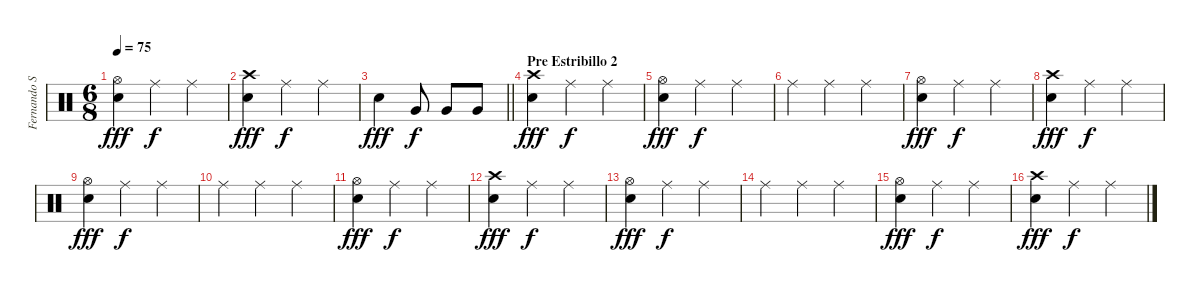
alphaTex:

\track ("Fernando Scarcella " "Fernando S") {instrument percussion}
\staff {score}
\articulation defaults
\ts (6 8)
\tempo 75
\clef neutral
\ks c
("Hi-Hat (open)" "Snare (hit) 2").4{dy fff} "Ride (middle)".4{dy f} "Ride (middle)".4 |
("Snare (hit) 2" "Crash high (hit)").4{dy fff} "Ride (middle)".4{dy f} "Ride (middle)".4 |
\barLineRight lightlight "Snare (hit) 2".4{dy fff} "Very Low Tom (hit)".8{dy f} "Very Low Tom (hit)".8 "Very Low Tom (hit)".8
|
\section ("" "Pre Estribillo 2")
("Snare (hit) 2" "Crash high (hit)").4{dy fff} "Ride (middle)".4{dy f} "Ride (middle)".4 |
("Hi-Hat (open)" "Snare (hit) 2").4{dy fff} "Ride (middle)".4{dy f} "Ride (middle)".4 |
"Ride (middle)".4 "Ride (middle)".4 "Ride (middle)".4 |
("Hi-Hat (open)" "Snare (hit) 2").4{dy fff} "Ride (middle)".4{dy f} "Ride (middle)".4 |
("Snare (hit) 2" "Crash high (hit)").4{dy fff} "Ride (middle)".4{dy f} "Ride (middle)".4 |
("Hi-Hat (open)" "Snare (hit) 2").4{dy fff} "Ride (middle)".4{dy f} "Ride (middle)".4 |
"Ride (middle)".4 "Ride (middle)".4 "Ride (middle)".4 |
("Hi-Hat (open)" "Snare (hit) 2").4{dy fff} "Ride (middle)".4{dy f} "Ride (middle)".4 |
("Snare (hit) 2" "Crash high (hit)").4{dy fff} "Ride (middle)".4{dy f} "Ride (middle)".4 |
("Hi-Hat (open)" "Snare (hit) 2").4{dy fff} "Ride (middle)".4{dy f} "Ride (middle)".4 |
"Ride (middle)".4 "Ride (middle)".4 "Ride (middle)".4 |
("Hi-Hat (open)" "Snare (hit) 2").4{dy fff} "Ride (middle)".4{dy f} "Ride (middle)".4 |
("Snare (hit) 2" "Crash high (hit)").4{dy fff} "Ride (middle)".4{dy f} "Ride (middle)".4
